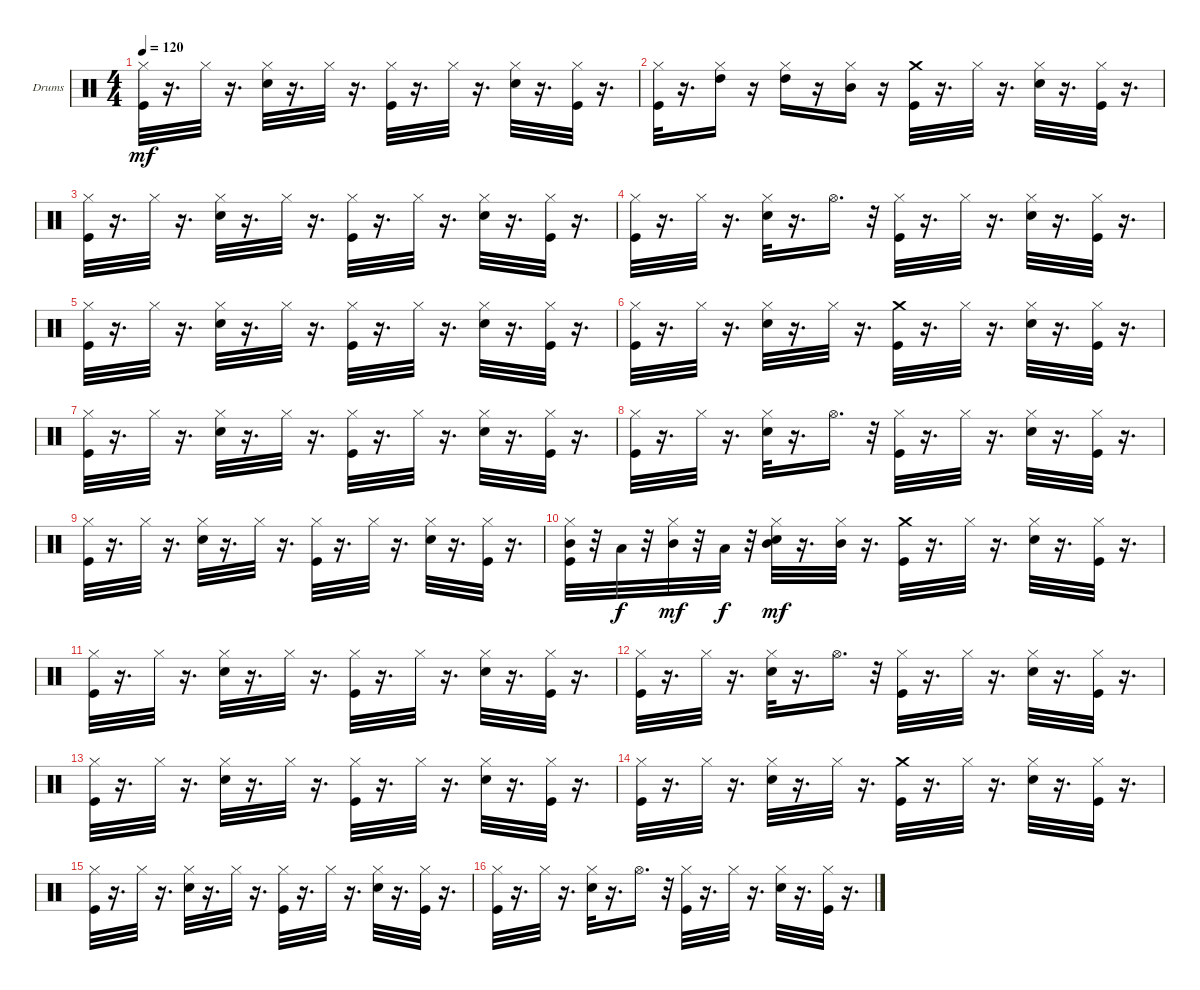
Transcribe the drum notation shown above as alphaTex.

\bracketExtendMode groupsimilarinstruments
\firstSystemTrackNameOrientation horizontal
\otherSystemsTrackNameOrientation horizontal
\track ("Ударные" "Drums") {instrument percussion}
\staff {score}
\articulation defaults
\ts (4 4)
\tempo 120
\clef neutral
\ks c
("Hi-Hat (closed)" "Kick (hit)").32{dy mf} r.16{d} "Hi-Hat (closed)".32 r.16{d} ("Hi-Hat (closed)" "Snare (hit) 2").32 r.16{d} "Hi-Hat (closed)".32 r.16{d} ("Hi-Hat (closed)" "Kick (hit)").32 r.16{d} "Hi-Hat (closed)".32 r.16{d} ("Hi-Hat (closed)" "Snare (hit) 2").32 r.16{d} ("Hi-Hat (closed)" "Kick (hit)").32 r.16{d} |
("Hi-Hat (closed)" "Kick (hit)").32 r.16{d} ("Hi-Hat (closed)" "High Tom (hit)").16 r.16 ("Hi-Hat (closed)" "High Tom (hit)").16 r.16 ("Hi-Hat (closed)" "Mid Tom (hit)").16 r.16 ("Crash medium (hit)" "Kick (hit)").32 r.16{d} "Hi-Hat (closed)".32 r.16{d} ("Hi-Hat (closed)" "Snare (hit) 2").32 r.16{d} ("Hi-Hat (closed)" "Kick (hit)").32 r.16{d} |
("Hi-Hat (closed)" "Kick (hit)").32 r.16{d} "Hi-Hat (closed)".32 r.16{d} ("Hi-Hat (closed)" "Snare (hit) 2").32 r.16{d} "Hi-Hat (closed)".32 r.16{d} ("Hi-Hat (closed)" "Kick (hit)").32 r.16{d} "Hi-Hat (closed)".32 r.16{d} ("Hi-Hat (closed)" "Snare (hit) 2").32 r.16{d} ("Hi-Hat (closed)" "Kick (hit)").32 r.16{d} |
("Hi-Hat (closed)" "Kick (hit)").32 r.16{d} "Hi-Hat (closed)".32 r.16{d} ("Hi-Hat (closed)" "Snare (hit) 2").32 r.16{d} "Hi-Hat (open)".16{d} r.32 ("Hi-Hat (closed)" "Kick (hit)").32 r.16{d} "Hi-Hat (closed)".32 r.16{d} ("Hi-Hat (closed)" "Snare (hit) 2").32 r.16{d} ("Hi-Hat (closed)" "Kick (hit)").32 r.16{d} |
("Hi-Hat (closed)" "Kick (hit)").32 r.16{d} "Hi-Hat (closed)".32 r.16{d} ("Hi-Hat (closed)" "Snare (hit) 2").32 r.16{d} "Hi-Hat (closed)".32 r.16{d} ("Hi-Hat (closed)" "Kick (hit)").32 r.16{d} "Hi-Hat (closed)".32 r.16{d} ("Hi-Hat (closed)" "Snare (hit) 2").32 r.16{d} ("Hi-Hat (closed)" "Kick (hit)").32 r.16{d} |
("Hi-Hat (closed)" "Kick (hit)").32 r.16{d} "Hi-Hat (closed)".32 r.16{d} ("Hi-Hat (closed)" "Snare (hit) 2").32 r.16{d} "Hi-Hat (closed)".32 r.16{d} ("Crash medium (hit)" "Kick (hit)").32 r.16{d} "Hi-Hat (closed)".32 r.16{d} ("Hi-Hat (closed)" "Snare (hit) 2").32 r.16{d} ("Hi-Hat (closed)" "Kick (hit)").32 r.16{d} |
("Hi-Hat (closed)" "Kick (hit)").32 r.16{d} "Hi-Hat (closed)".32 r.16{d} ("Hi-Hat (closed)" "Snare (hit) 2").32 r.16{d} "Hi-Hat (closed)".32 r.16{d} ("Hi-Hat (closed)" "Kick (hit)").32 r.16{d} "Hi-Hat (closed)".32 r.16{d} ("Hi-Hat (closed)" "Snare (hit) 2").32 r.16{d} ("Hi-Hat (closed)" "Kick (hit)").32 r.16{d} |
("Hi-Hat (closed)" "Kick (hit)").32 r.16{d} "Hi-Hat (closed)".32 r.16{d} ("Hi-Hat (closed)" "Snare (hit) 2").32 r.16{d} "Hi-Hat (open)".16{d} r.32 ("Hi-Hat (closed)" "Kick (hit)").32 r.16{d} "Hi-Hat (closed)".32 r.16{d} ("Hi-Hat (closed)" "Snare (hit) 2").32 r.16{d} ("Hi-Hat (closed)" "Kick (hit)").32 r.16{d} |
("Hi-Hat (closed)" "Kick (hit)").32 r.16{d} "Hi-Hat (closed)".32 r.16{d} ("Hi-Hat (closed)" "Snare (hit) 2").32 r.16{d} "Hi-Hat (closed)".32 r.16{d} ("Hi-Hat (closed)" "Kick (hit)").32 r.16{d} "Hi-Hat (closed)".32 r.16{d} ("Hi-Hat (closed)" "Snare (hit) 2").32 r.16{d} ("Hi-Hat (closed)" "Kick (hit)").32 r.16{d} |
("Hi-Hat (closed)" "Kick (hit)" "Mid Tom (hit)").32 r.32 "Low Tom (hit)".32{dy f} r.32 ("Hi-Hat (closed)" "Mid Tom (hit)").32{dy mf} r.32 "Low Tom (hit)".32{dy f} r.32 ("Hi-Hat (closed)" "Mid Tom (hit)" "Snare (hit) 2").32{dy mf} r.16{d} ("Hi-Hat (closed)" "Mid Tom (hit)").32 r.16{d} ("Crash medium (hit)" "Kick (hit)").32 r.16{d} "Hi-Hat (closed)".32 r.16{d} ("Hi-Hat (closed)" "Snare (hit) 2").32 r.16{d} ("Hi-Hat (closed)" "Kick (hit)").32 r.16{d} |
("Hi-Hat (closed)" "Kick (hit)").32 r.16{d} "Hi-Hat (closed)".32 r.16{d} ("Hi-Hat (closed)" "Snare (hit) 2").32 r.16{d} "Hi-Hat (closed)".32 r.16{d} ("Hi-Hat (closed)" "Kick (hit)").32 r.16{d} "Hi-Hat (closed)".32 r.16{d} ("Hi-Hat (closed)" "Snare (hit) 2").32 r.16{d} ("Hi-Hat (closed)" "Kick (hit)").32 r.16{d} |
("Hi-Hat (closed)" "Kick (hit)").32 r.16{d} "Hi-Hat (closed)".32 r.16{d} ("Hi-Hat (closed)" "Snare (hit) 2").32 r.16{d} "Hi-Hat (open)".16{d} r.32 ("Hi-Hat (closed)" "Kick (hit)").32 r.16{d} "Hi-Hat (closed)".32 r.16{d} ("Hi-Hat (closed)" "Snare (hit) 2").32 r.16{d} ("Hi-Hat (closed)" "Kick (hit)").32 r.16{d} |
("Hi-Hat (closed)" "Kick (hit)").32 r.16{d} "Hi-Hat (closed)".32 r.16{d} ("Hi-Hat (closed)" "Snare (hit) 2").32 r.16{d} "Hi-Hat (closed)".32 r.16{d} ("Hi-Hat (closed)" "Kick (hit)").32 r.16{d} "Hi-Hat (closed)".32 r.16{d} ("Hi-Hat (closed)" "Snare (hit) 2").32 r.16{d} ("Hi-Hat (closed)" "Kick (hit)").32 r.16{d} |
("Hi-Hat (closed)" "Kick (hit)").32 r.16{d} "Hi-Hat (closed)".32 r.16{d} ("Hi-Hat (closed)" "Snare (hit) 2").32 r.16{d} "Hi-Hat (closed)".32 r.16{d} ("Crash medium (hit)" "Kick (hit)").32 r.16{d} "Hi-Hat (closed)".32 r.16{d} ("Hi-Hat (closed)" "Snare (hit) 2").32 r.16{d} ("Hi-Hat (closed)" "Kick (hit)").32 r.16{d} |
("Hi-Hat (closed)" "Kick (hit)").32 r.16{d} "Hi-Hat (closed)".32 r.16{d} ("Hi-Hat (closed)" "Snare (hit) 2").32 r.16{d} "Hi-Hat (closed)".32 r.16{d} ("Hi-Hat (closed)" "Kick (hit)").32 r.16{d} "Hi-Hat (closed)".32 r.16{d} ("Hi-Hat (closed)" "Snare (hit) 2").32 r.16{d} ("Hi-Hat (closed)" "Kick (hit)").32 r.16{d} |
("Hi-Hat (closed)" "Kick (hit)").32 r.16{d} "Hi-Hat (closed)".32 r.16{d} ("Hi-Hat (closed)" "Snare (hit) 2").32 r.16{d} "Hi-Hat (open)".16{d} r.32 ("Hi-Hat (closed)" "Kick (hit)").32 r.16{d} "Hi-Hat (closed)".32 r.16{d} ("Hi-Hat (closed)" "Snare (hit) 2").32 r.16{d} ("Hi-Hat (closed)" "Kick (hit)").32 r.16{d}
